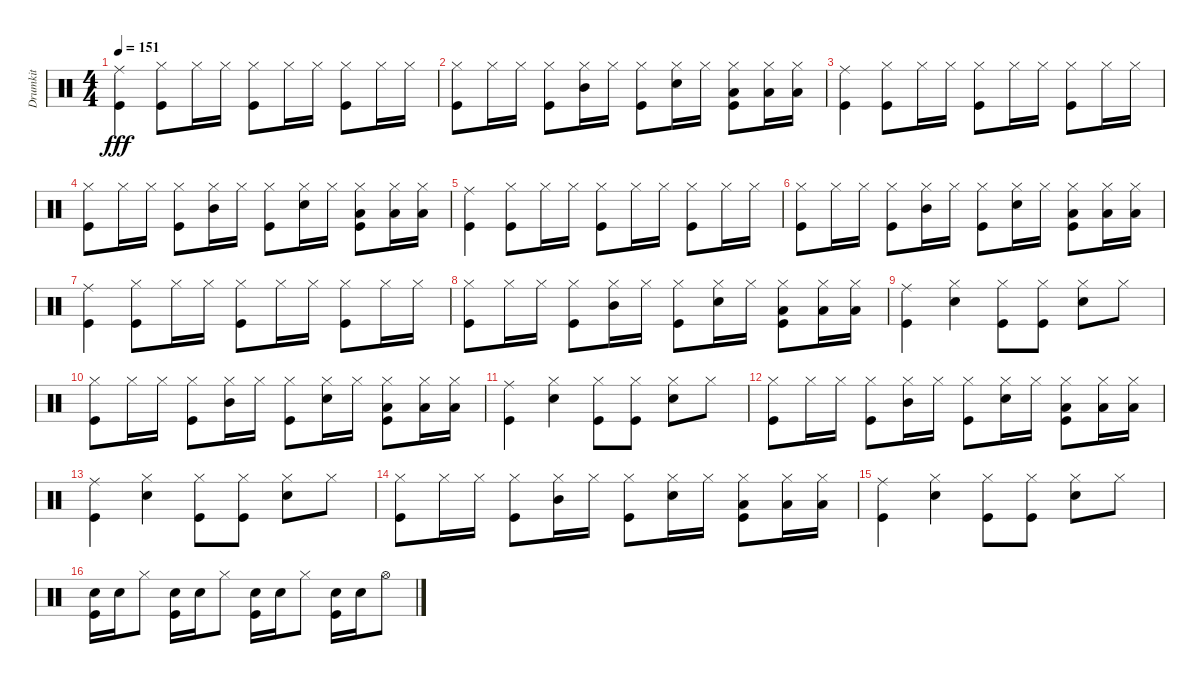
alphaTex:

\track ("Drumkit" "Drumkit") {instrument percussion}
\staff {score}
\articulation defaults
\ts (4 4)
\tempo 151
\clef neutral
\ks c
("Ride (middle)" "Kick (hit)").4{dy fff} ("Hi-Hat (closed)" "Kick (hit)").8 "Hi-Hat (closed)".16 "Hi-Hat (closed)".16 ("Hi-Hat (closed)" "Kick (hit)").8 "Hi-Hat (closed)".16 "Hi-Hat (closed)".16 ("Hi-Hat (closed)" "Kick (hit)").8 "Hi-Hat (closed)".16 "Hi-Hat (closed)".16 |
("Hi-Hat (closed)" "Kick (hit)").8 "Hi-Hat (closed)".16 "Hi-Hat (closed)".16 ("Hi-Hat (closed)" "Kick (hit)").8 ("Hi-Hat (closed)" "Mid Tom (hit)").16 "Hi-Hat (closed)".16 ("Hi-Hat (closed)" "Kick (hit)").8 ("Hi-Hat (closed)" "Snare (hit) 2").16 "Hi-Hat (closed)".16 ("Hi-Hat (closed)" "Low Floor Tom (hit)" "Kick (hit)").8 ("Hi-Hat (closed)" "Low Floor Tom (hit)").16 ("Hi-Hat (closed)" "Low Floor Tom (hit)").16 |
("Ride (middle)" "Kick (hit)").4 ("Hi-Hat (closed)" "Kick (hit)").8 "Hi-Hat (closed)".16 "Hi-Hat (closed)".16 ("Hi-Hat (closed)" "Kick (hit)").8 "Hi-Hat (closed)".16 "Hi-Hat (closed)".16 ("Hi-Hat (closed)" "Kick (hit)").8 "Hi-Hat (closed)".16 "Hi-Hat (closed)".16 |
("Hi-Hat (closed)" "Kick (hit)").8 "Hi-Hat (closed)".16 "Hi-Hat (closed)".16 ("Hi-Hat (closed)" "Kick (hit)").8 ("Hi-Hat (closed)" "Mid Tom (hit)").16 "Hi-Hat (closed)".16 ("Hi-Hat (closed)" "Kick (hit)").8 ("Hi-Hat (closed)" "Snare (hit) 2").16 "Hi-Hat (closed)".16 ("Hi-Hat (closed)" "Low Floor Tom (hit)" "Kick (hit)").8 ("Hi-Hat (closed)" "Low Floor Tom (hit)").16 ("Hi-Hat (closed)" "Low Floor Tom (hit)").16 |
("Ride (middle)" "Kick (hit)").4 ("Hi-Hat (closed)" "Kick (hit)").8 "Hi-Hat (closed)".16 "Hi-Hat (closed)".16 ("Hi-Hat (closed)" "Kick (hit)").8 "Hi-Hat (closed)".16 "Hi-Hat (closed)".16 ("Hi-Hat (closed)" "Kick (hit)").8 "Hi-Hat (closed)".16 "Hi-Hat (closed)".16 |
("Hi-Hat (closed)" "Kick (hit)").8 "Hi-Hat (closed)".16 "Hi-Hat (closed)".16 ("Hi-Hat (closed)" "Kick (hit)").8 ("Hi-Hat (closed)" "Mid Tom (hit)").16 "Hi-Hat (closed)".16 ("Hi-Hat (closed)" "Kick (hit)").8 ("Hi-Hat (closed)" "Snare (hit) 2").16 "Hi-Hat (closed)".16 ("Hi-Hat (closed)" "Low Floor Tom (hit)" "Kick (hit)").8 ("Hi-Hat (closed)" "Low Floor Tom (hit)").16 ("Hi-Hat (closed)" "Low Floor Tom (hit)").16 |
("Ride (middle)" "Kick (hit)").4 ("Hi-Hat (closed)" "Kick (hit)").8 "Hi-Hat (closed)".16 "Hi-Hat (closed)".16 ("Hi-Hat (closed)" "Kick (hit)").8 "Hi-Hat (closed)".16 "Hi-Hat (closed)".16 ("Hi-Hat (closed)" "Kick (hit)").8 "Hi-Hat (closed)".16 "Hi-Hat (closed)".16 |
("Hi-Hat (closed)" "Kick (hit)").8 "Hi-Hat (closed)".16 "Hi-Hat (closed)".16 ("Hi-Hat (closed)" "Kick (hit)").8 ("Hi-Hat (closed)" "Mid Tom (hit)").16 "Hi-Hat (closed)".16 ("Hi-Hat (closed)" "Kick (hit)").8 ("Hi-Hat (closed)" "Snare (hit) 2").16 "Hi-Hat (closed)".16 ("Hi-Hat (closed)" "Low Floor Tom (hit)" "Kick (hit)").8 ("Hi-Hat (closed)" "Low Floor Tom (hit)").16 ("Hi-Hat (closed)" "Low Floor Tom (hit)").16 |
("Ride (middle)" "Kick (hit)").4 ("Hi-Hat (closed)" "Snare (hit) 2").4 ("Hi-Hat (closed)" "Kick (hit)").8 ("Hi-Hat (closed)" "Kick (hit)").8 ("Snare (hit) 2" "Hi-Hat (closed)").8 "Hi-Hat (closed)".8 |
("Hi-Hat (closed)" "Kick (hit)").8 "Hi-Hat (closed)".16 "Hi-Hat (closed)".16 ("Hi-Hat (closed)" "Kick (hit)").8 ("Hi-Hat (closed)" "Mid Tom (hit)").16 "Hi-Hat (closed)".16 ("Hi-Hat (closed)" "Kick (hit)").8 ("Hi-Hat (closed)" "Snare (hit) 2").16 "Hi-Hat (closed)".16 ("Hi-Hat (closed)" "Low Floor Tom (hit)" "Kick (hit)").8 ("Hi-Hat (closed)" "Low Floor Tom (hit)").16 ("Hi-Hat (closed)" "Low Floor Tom (hit)").16 |
("Ride (middle)" "Kick (hit)").4 ("Hi-Hat (closed)" "Snare (hit) 2").4 ("Hi-Hat (closed)" "Kick (hit)").8 ("Hi-Hat (closed)" "Kick (hit)").8 ("Snare (hit) 2" "Hi-Hat (closed)").8 "Hi-Hat (closed)".8 |
("Hi-Hat (closed)" "Kick (hit)").8 "Hi-Hat (closed)".16 "Hi-Hat (closed)".16 ("Hi-Hat (closed)" "Kick (hit)").8 ("Hi-Hat (closed)" "Mid Tom (hit)").16 "Hi-Hat (closed)".16 ("Hi-Hat (closed)" "Kick (hit)").8 ("Hi-Hat (closed)" "Snare (hit) 2").16 "Hi-Hat (closed)".16 ("Hi-Hat (closed)" "Low Floor Tom (hit)" "Kick (hit)").8 ("Hi-Hat (closed)" "Low Floor Tom (hit)").16 ("Hi-Hat (closed)" "Low Floor Tom (hit)").16 |
("Ride (middle)" "Kick (hit)").4 ("Hi-Hat (closed)" "Snare (hit) 2").4 ("Hi-Hat (closed)" "Kick (hit)").8 ("Hi-Hat (closed)" "Kick (hit)").8 ("Snare (hit) 2" "Hi-Hat (closed)").8 "Hi-Hat (closed)".8 |
("Hi-Hat (closed)" "Kick (hit)").8 "Hi-Hat (closed)".16 "Hi-Hat (closed)".16 ("Hi-Hat (closed)" "Kick (hit)").8 ("Hi-Hat (closed)" "Mid Tom (hit)").16 "Hi-Hat (closed)".16 ("Hi-Hat (closed)" "Kick (hit)").8 ("Hi-Hat (closed)" "Snare (hit) 2").16 "Hi-Hat (closed)".16 ("Hi-Hat (closed)" "Low Floor Tom (hit)" "Kick (hit)").8 ("Hi-Hat (closed)" "Low Floor Tom (hit)").16 ("Hi-Hat (closed)" "Low Floor Tom (hit)").16 |
("Ride (middle)" "Kick (hit)").4 ("Hi-Hat (closed)" "Snare (hit) 2").4 ("Hi-Hat (closed)" "Kick (hit)").8 ("Hi-Hat (closed)" "Kick (hit)").8 ("Snare (hit) 2" "Hi-Hat (closed)").8 "Hi-Hat (closed)".8 |
("Kick (hit)" "Snare (hit) 2").16 "Snare (hit) 2".16 "Hi-Hat (closed)".8 ("Kick (hit)" "Snare (hit) 2").16 "Snare (hit) 2".16 "Hi-Hat (closed)".8 ("Kick (hit)" "Snare (hit) 2").16 "Snare (hit) 2".16 "Hi-Hat (closed)".8 ("Kick (hit)" "Snare (hit) 2").16 "Snare (hit) 2".16 "Hi-Hat (open)".8
